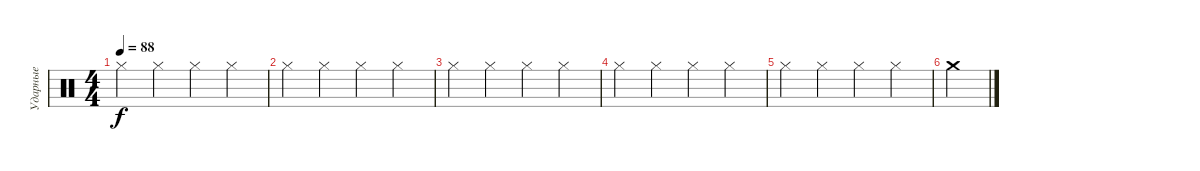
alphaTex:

\track ("Ударные" "Ударные") {instrument percussion}
\staff {score}
\articulation defaults
\ts (4 4)
\tempo 88
\clef neutral
\ks c "Hi-Hat (closed)".4{dy f} "Hi-Hat (closed)".4 "Hi-Hat (closed)".4 "Hi-Hat (closed)".4
|
"Hi-Hat (closed)".4 "Hi-Hat (closed)".4 "Hi-Hat (closed)".4 "Hi-Hat (closed)".4 |
"Hi-Hat (closed)".4 "Hi-Hat (closed)".4 "Hi-Hat (closed)".4 "Hi-Hat (closed)".4 |
"Hi-Hat (closed)".4 "Hi-Hat (closed)".4 "Hi-Hat (closed)".4 "Hi-Hat (closed)".4 |
"Hi-Hat (closed)".4 "Hi-Hat (closed)".4 "Hi-Hat (closed)".4 "Hi-Hat (closed)".4 |
"Crash medium (hit)".4
